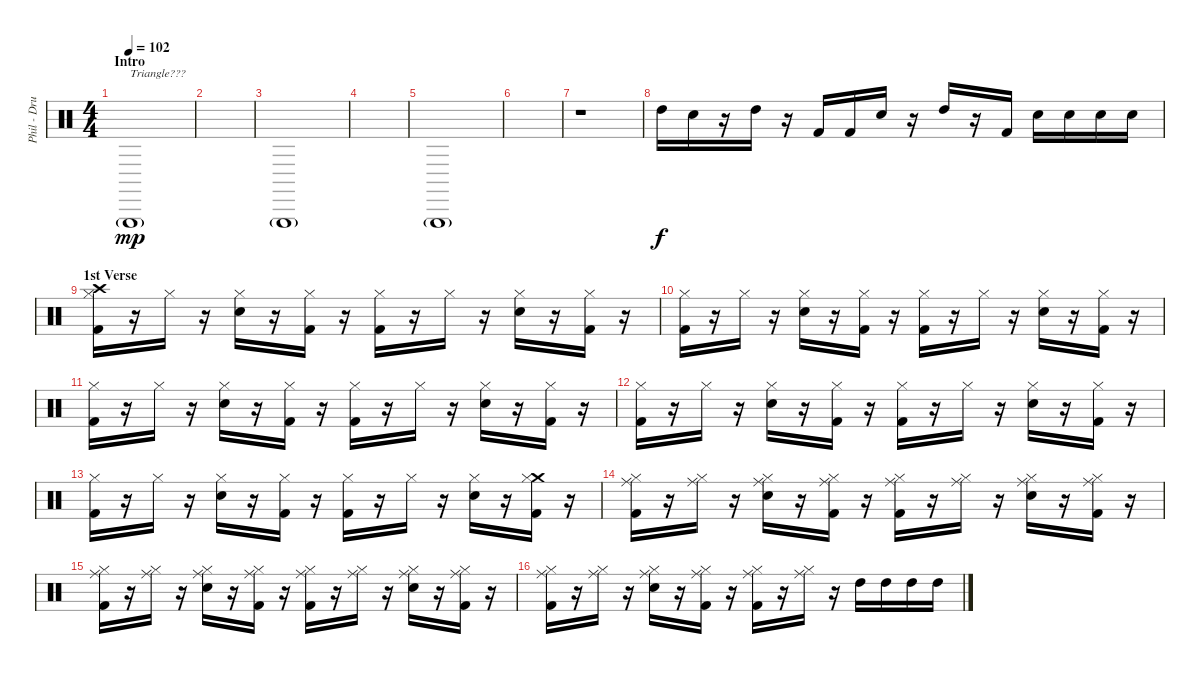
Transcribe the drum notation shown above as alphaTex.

\track ("Phil - Drums" "Phil - Dru") {instrument percussion}
\staff {score}
\articulation defaults
\ts (4 4)
\section ("" "Intro")
\tempo 102
\clef neutral
\ks c "Triangle (hit)"{g}.1{txt "Triangle???" dy mp}
|
|
"Triangle (hit)"{g}.1 |
|
"Triangle (hit)"{g}.1 |
|
r.1 |
"High Tom (hit)".16{dy f} "Snare (hit) 2".16 r.16 "High Tom (hit)".16 r.16 "Kick (hit) 2".16 "Kick (hit) 2".16 "Snare (hit) 2".16 r.16 "High Tom (hit)".16 r.16 "Kick (hit) 2".16 "Snare (hit) 2".16 "Snare (hit) 2".16 "Snare (hit) 2".16 "Snare (hit) 2".16 |
\section ("" "1st Verse")
("Crash high (hit)" "Kick (hit) 2" "Hi-Hat (closed)").16 r.16 "Hi-Hat (closed)".16 r.16 ("Snare (hit) 2" "Hi-Hat (closed)").16 r.16 ("Kick (hit) 2" "Hi-Hat (closed)").16 r.16 ("Kick (hit) 2" "Hi-Hat (closed)").16 r.16 "Hi-Hat (closed)".16 r.16 ("Snare (hit) 2" "Hi-Hat (closed)").16 r.16 ("Kick (hit) 2" "Hi-Hat (closed)").16 r.16 |
("Kick (hit) 2" "Hi-Hat (closed)").16 r.16 "Hi-Hat (closed)".16 r.16 ("Snare (hit) 2" "Hi-Hat (closed)").16 r.16 ("Kick (hit) 2" "Hi-Hat (closed)").16 r.16 ("Kick (hit) 2" "Hi-Hat (closed)").16 r.16 "Hi-Hat (closed)".16 r.16 ("Snare (hit) 2" "Hi-Hat (closed)").16 r.16 ("Kick (hit) 2" "Hi-Hat (closed)").16 r.16 |
("Kick (hit) 2" "Hi-Hat (closed)").16 r.16 "Hi-Hat (closed)".16 r.16 ("Snare (hit) 2" "Hi-Hat (closed)").16 r.16 ("Kick (hit) 2" "Hi-Hat (closed)").16 r.16 ("Kick (hit) 2" "Hi-Hat (closed)").16 r.16 "Hi-Hat (closed)".16 r.16 ("Snare (hit) 2" "Hi-Hat (closed)").16 r.16 ("Kick (hit) 2" "Hi-Hat (closed)").16 r.16 |
("Kick (hit) 2" "Hi-Hat (closed)").16 r.16 "Hi-Hat (closed)".16 r.16 ("Snare (hit) 2" "Hi-Hat (closed)").16 r.16 ("Kick (hit) 2" "Hi-Hat (closed)").16 r.16 ("Kick (hit) 2" "Hi-Hat (closed)").16 r.16 "Hi-Hat (closed)".16 r.16 ("Snare (hit) 2" "Hi-Hat (closed)").16 r.16 ("Kick (hit) 2" "Hi-Hat (closed)").16 r.16 |
("Kick (hit) 2" "Hi-Hat (closed)").16 r.16 "Hi-Hat (closed)".16 r.16 ("Snare (hit) 2" "Hi-Hat (closed)").16 r.16 ("Kick (hit) 2" "Hi-Hat (closed)").16 r.16 ("Kick (hit) 2" "Hi-Hat (closed)").16 r.16 "Hi-Hat (closed)".16 r.16 ("Snare (hit) 2" "Hi-Hat (closed)").16 r.16 ("Crash medium (hit)" "Kick (hit) 2" "Hi-Hat (closed)").16 r.16 |
("Ride (middle)" "Kick (hit) 2" "Hi-Hat (closed)").16 r.16 ("Ride (middle)" "Hi-Hat (closed)").16 r.16 ("Ride (middle)" "Snare (hit) 2" "Hi-Hat (closed)").16 r.16 ("Ride (middle)" "Kick (hit) 2" "Hi-Hat (closed)").16 r.16 ("Ride (middle)" "Kick (hit) 2" "Hi-Hat (closed)").16 r.16 ("Ride (middle)" "Hi-Hat (closed)").16 r.16 ("Ride (middle)" "Snare (hit) 2" "Hi-Hat (closed)").16 r.16 ("Ride (middle)" "Kick (hit) 2" "Hi-Hat (closed)").16 r.16 |
("Ride (middle)" "Kick (hit) 2" "Hi-Hat (closed)").16 r.16 ("Ride (middle)" "Hi-Hat (closed)").16 r.16 ("Ride (middle)" "Snare (hit) 2" "Hi-Hat (closed)").16 r.16 ("Ride (middle)" "Kick (hit) 2" "Hi-Hat (closed)").16 r.16 ("Ride (middle)" "Kick (hit) 2" "Hi-Hat (closed)").16 r.16 ("Ride (middle)" "Hi-Hat (closed)").16 r.16 ("Ride (middle)" "Snare (hit) 2" "Hi-Hat (closed)").16 r.16 ("Ride (middle)" "Kick (hit) 2" "Hi-Hat (closed)").16 r.16 |
("Ride (middle)" "Kick (hit) 2" "Hi-Hat (closed)").16 r.16 ("Ride (middle)" "Hi-Hat (closed)").16 r.16 ("Ride (middle)" "Snare (hit) 2" "Hi-Hat (closed)").16 r.16 ("Ride (middle)" "Kick (hit) 2" "Hi-Hat (closed)").16 r.16 ("Ride (middle)" "Kick (hit) 2" "Hi-Hat (closed)").16 r.16 ("Ride (middle)" "Hi-Hat (closed)").16 r.16 "High Tom (hit)".16 "High Tom (hit)".16 "High Tom (hit)".16 "High Tom (hit)".16
